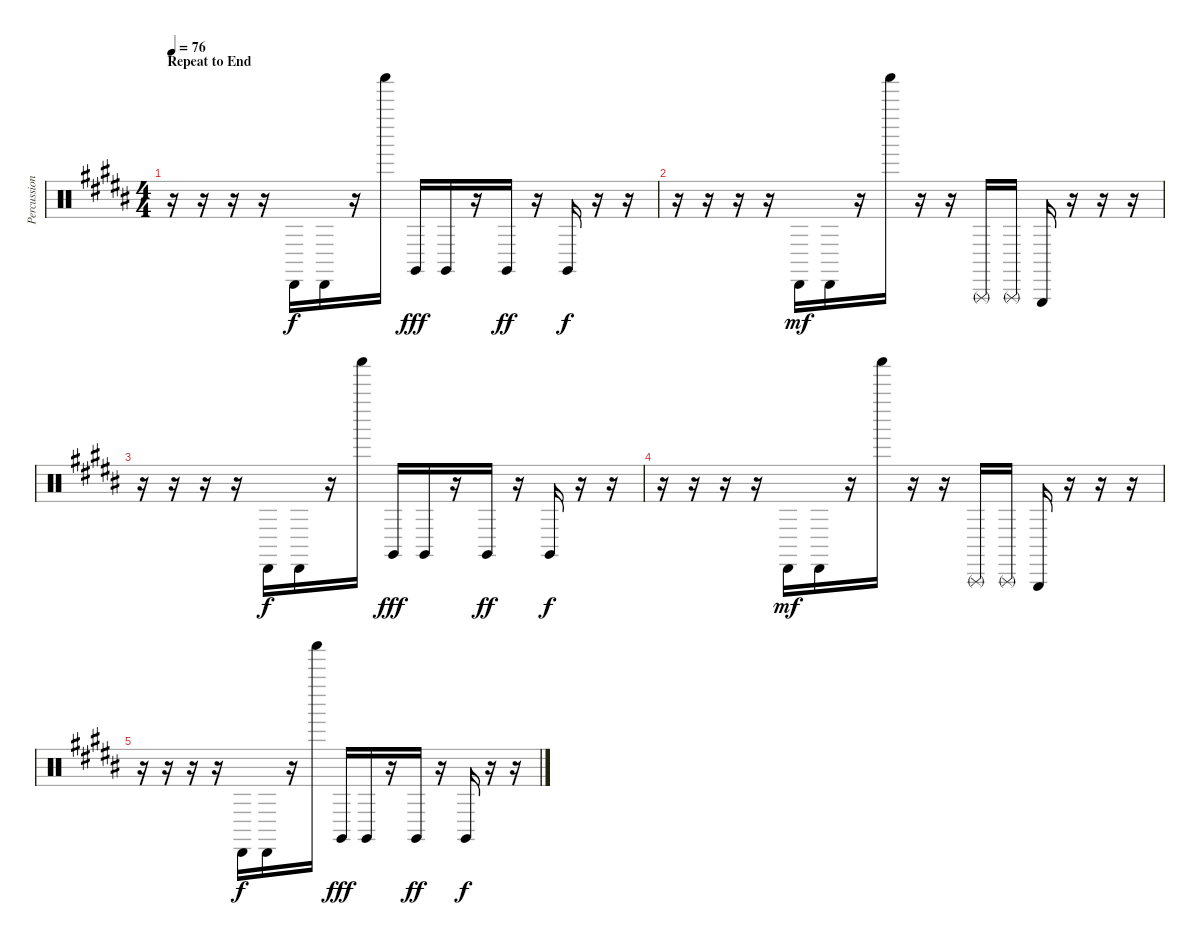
\track ("Percussion" "Percussion") {instrument percussion}
\staff {score}
\articulation defaults
\ts (4 4)
\section ("" "Repeat to End")
\tempo 76
\clef neutral
\ks b
r.16{dy mf} r.16 r.16 r.16 "Cabasa (hit)".16{dy f} "Cabasa (hit)".16 r.16 "Shaker (hit)".16 "Claves (hit)".16{dy fff} "Claves (hit)".16 r.16 "Claves (hit)".16{dy ff} r.16 "Claves (hit)".16{dy f} r.16 r.16 |
r.16 r.16 r.16 r.16 "Cabasa (hit)".16{dy mf} "Cabasa (hit)".16 r.16 "Shaker (hit)".16 r.16 r.16 "Triangle (rnute)".16 "Triangle (rnute)".16 "Triangle (hit)".16 r.16 r.16 r.16 |
r.16 r.16 r.16 r.16 "Cabasa (hit)".16{dy f} "Cabasa (hit)".16 r.16 "Shaker (hit)".16 "Claves (hit)".16{dy fff} "Claves (hit)".16 r.16 "Claves (hit)".16{dy ff} r.16 "Claves (hit)".16{dy f} r.16 r.16 |
r.16 r.16 r.16 r.16 "Cabasa (hit)".16{dy mf} "Cabasa (hit)".16 r.16 "Shaker (hit)".16 r.16 r.16 "Triangle (rnute)".16 "Triangle (rnute)".16 "Triangle (hit)".16 r.16 r.16 r.16 |
r.16 r.16 r.16 r.16 "Cabasa (hit)".16{dy f} "Cabasa (hit)".16 r.16 "Shaker (hit)".16 "Claves (hit)".16{dy fff} "Claves (hit)".16 r.16 "Claves (hit)".16{dy ff} r.16 "Claves (hit)".16{dy f} r.16 r.16
